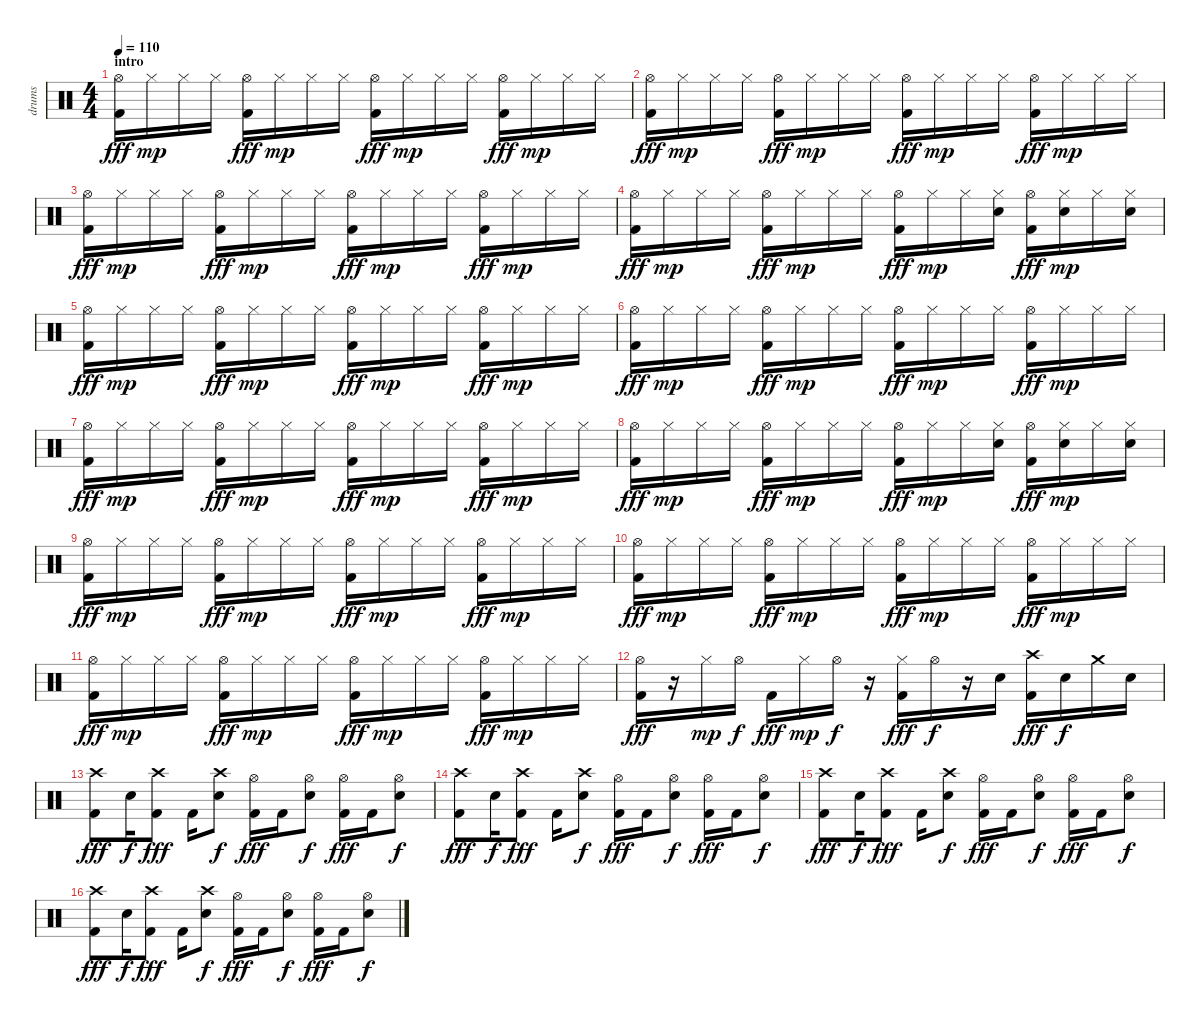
\track ("drums" "drums") {instrument percussion}
\staff {score}
\articulation defaults
\ts (4 4)
\section ("" "intro")
\tempo 110
\clef neutral
\ks c
("Hi-Hat (open)" "Kick (hit) 2").16{dy fff} "Hi-Hat (closed)".16{dy mp} "Hi-Hat (closed)".16 "Hi-Hat (closed)".16 ("Hi-Hat (open)" "Kick (hit) 2").16{dy fff} "Hi-Hat (closed)".16{dy mp} "Hi-Hat (closed)".16 "Hi-Hat (closed)".16 ("Hi-Hat (open)" "Kick (hit) 2").16{dy fff} "Hi-Hat (closed)".16{dy mp} "Hi-Hat (closed)".16 "Hi-Hat (closed)".16 ("Hi-Hat (open)" "Kick (hit) 2").16{dy fff} "Hi-Hat (closed)".16{dy mp} "Hi-Hat (closed)".16 "Hi-Hat (closed)".16 |
("Hi-Hat (open)" "Kick (hit) 2").16{dy fff} "Hi-Hat (closed)".16{dy mp} "Hi-Hat (closed)".16 "Hi-Hat (closed)".16 ("Hi-Hat (open)" "Kick (hit) 2").16{dy fff} "Hi-Hat (closed)".16{dy mp} "Hi-Hat (closed)".16 "Hi-Hat (closed)".16 ("Hi-Hat (open)" "Kick (hit) 2").16{dy fff} "Hi-Hat (closed)".16{dy mp} "Hi-Hat (closed)".16 "Hi-Hat (closed)".16 ("Hi-Hat (open)" "Kick (hit) 2").16{dy fff} "Hi-Hat (closed)".16{dy mp} "Hi-Hat (closed)".16 "Hi-Hat (closed)".16 |
("Hi-Hat (open)" "Kick (hit) 2").16{dy fff} "Hi-Hat (closed)".16{dy mp} "Hi-Hat (closed)".16 "Hi-Hat (closed)".16 ("Hi-Hat (open)" "Kick (hit) 2").16{dy fff} "Hi-Hat (closed)".16{dy mp} "Hi-Hat (closed)".16 "Hi-Hat (closed)".16 ("Hi-Hat (open)" "Kick (hit) 2").16{dy fff} "Hi-Hat (closed)".16{dy mp} "Hi-Hat (closed)".16 "Hi-Hat (closed)".16 ("Hi-Hat (open)" "Kick (hit) 2").16{dy fff} "Hi-Hat (closed)".16{dy mp} "Hi-Hat (closed)".16 "Hi-Hat (closed)".16 |
("Hi-Hat (open)" "Kick (hit) 2").16{dy fff} "Hi-Hat (closed)".16{dy mp} "Hi-Hat (closed)".16 "Hi-Hat (closed)".16 ("Hi-Hat (open)" "Kick (hit) 2").16{dy fff} "Hi-Hat (closed)".16{dy mp} "Hi-Hat (closed)".16 "Hi-Hat (closed)".16 ("Hi-Hat (open)" "Kick (hit) 2").16{dy fff} "Hi-Hat (closed)".16{dy mp} "Hi-Hat (closed)".16 ("Hi-Hat (closed)" "Snare (hit) 2").16 ("Hi-Hat (open)" "Kick (hit) 2").16{dy fff} ("Hi-Hat (closed)" "Snare (hit) 2").16{dy mp} "Hi-Hat (closed)".16 ("Hi-Hat (closed)" "Snare (hit) 2").16 |
("Hi-Hat (open)" "Kick (hit) 2").16{dy fff} "Hi-Hat (closed)".16{dy mp} "Hi-Hat (closed)".16 "Hi-Hat (closed)".16 ("Hi-Hat (open)" "Kick (hit) 2").16{dy fff} "Hi-Hat (closed)".16{dy mp} "Hi-Hat (closed)".16 "Hi-Hat (closed)".16 ("Hi-Hat (open)" "Kick (hit) 2").16{dy fff} "Hi-Hat (closed)".16{dy mp} "Hi-Hat (closed)".16 "Hi-Hat (closed)".16 ("Hi-Hat (open)" "Kick (hit) 2").16{dy fff} "Hi-Hat (closed)".16{dy mp} "Hi-Hat (closed)".16 "Hi-Hat (closed)".16 |
("Hi-Hat (open)" "Kick (hit) 2").16{dy fff} "Hi-Hat (closed)".16{dy mp} "Hi-Hat (closed)".16 "Hi-Hat (closed)".16 ("Hi-Hat (open)" "Kick (hit) 2").16{dy fff} "Hi-Hat (closed)".16{dy mp} "Hi-Hat (closed)".16 "Hi-Hat (closed)".16 ("Hi-Hat (open)" "Kick (hit) 2").16{dy fff} "Hi-Hat (closed)".16{dy mp} "Hi-Hat (closed)".16 "Hi-Hat (closed)".16 ("Hi-Hat (open)" "Kick (hit) 2").16{dy fff} "Hi-Hat (closed)".16{dy mp} "Hi-Hat (closed)".16 "Hi-Hat (closed)".16 |
("Hi-Hat (open)" "Kick (hit) 2").16{dy fff} "Hi-Hat (closed)".16{dy mp} "Hi-Hat (closed)".16 "Hi-Hat (closed)".16 ("Hi-Hat (open)" "Kick (hit) 2").16{dy fff} "Hi-Hat (closed)".16{dy mp} "Hi-Hat (closed)".16 "Hi-Hat (closed)".16 ("Hi-Hat (open)" "Kick (hit) 2").16{dy fff} "Hi-Hat (closed)".16{dy mp} "Hi-Hat (closed)".16 "Hi-Hat (closed)".16 ("Hi-Hat (open)" "Kick (hit) 2").16{dy fff} "Hi-Hat (closed)".16{dy mp} "Hi-Hat (closed)".16 "Hi-Hat (closed)".16 |
("Hi-Hat (open)" "Kick (hit) 2").16{dy fff} "Hi-Hat (closed)".16{dy mp} "Hi-Hat (closed)".16 "Hi-Hat (closed)".16 ("Hi-Hat (open)" "Kick (hit) 2").16{dy fff} "Hi-Hat (closed)".16{dy mp} "Hi-Hat (closed)".16 "Hi-Hat (closed)".16 ("Hi-Hat (open)" "Kick (hit) 2").16{dy fff} "Hi-Hat (closed)".16{dy mp} "Hi-Hat (closed)".16 ("Hi-Hat (closed)" "Snare (hit) 2").16 ("Hi-Hat (open)" "Kick (hit) 2").16{dy fff} ("Hi-Hat (closed)" "Snare (hit) 2").16{dy mp} "Hi-Hat (closed)".16 ("Hi-Hat (closed)" "Snare (hit) 2").16 |
("Hi-Hat (open)" "Kick (hit) 2").16{dy fff} "Hi-Hat (closed)".16{dy mp} "Hi-Hat (closed)".16 "Hi-Hat (closed)".16 ("Hi-Hat (open)" "Kick (hit) 2").16{dy fff} "Hi-Hat (closed)".16{dy mp} "Hi-Hat (closed)".16 "Hi-Hat (closed)".16 ("Hi-Hat (open)" "Kick (hit) 2").16{dy fff} "Hi-Hat (closed)".16{dy mp} "Hi-Hat (closed)".16 "Hi-Hat (closed)".16 ("Hi-Hat (open)" "Kick (hit) 2").16{dy fff} "Hi-Hat (closed)".16{dy mp} "Hi-Hat (closed)".16 "Hi-Hat (closed)".16 |
("Hi-Hat (open)" "Kick (hit) 2").16{dy fff} "Hi-Hat (closed)".16{dy mp} "Hi-Hat (closed)".16 "Hi-Hat (closed)".16 ("Hi-Hat (open)" "Kick (hit) 2").16{dy fff} "Hi-Hat (closed)".16{dy mp} "Hi-Hat (closed)".16 "Hi-Hat (closed)".16 ("Hi-Hat (open)" "Kick (hit) 2").16{dy fff} "Hi-Hat (closed)".16{dy mp} "Hi-Hat (closed)".16 "Hi-Hat (closed)".16 ("Hi-Hat (open)" "Kick (hit) 2").16{dy fff} "Hi-Hat (closed)".16{dy mp} "Hi-Hat (closed)".16 "Hi-Hat (closed)".16 |
("Hi-Hat (open)" "Kick (hit) 2").16{dy fff} "Hi-Hat (closed)".16{dy mp} "Hi-Hat (closed)".16 "Hi-Hat (closed)".16 ("Hi-Hat (open)" "Kick (hit) 2").16{dy fff} "Hi-Hat (closed)".16{dy mp} "Hi-Hat (closed)".16 "Hi-Hat (closed)".16 ("Hi-Hat (open)" "Kick (hit) 2").16{dy fff} "Hi-Hat (closed)".16{dy mp} "Hi-Hat (closed)".16 "Hi-Hat (closed)".16 ("Hi-Hat (open)" "Kick (hit) 2").16{dy fff} "Hi-Hat (closed)".16{dy mp} "Hi-Hat (closed)".16 "Hi-Hat (closed)".16 |
("Hi-Hat (open)" "Kick (hit) 2").16{dy fff} r.16 "Hi-Hat (closed)".16{dy mp} "Hi-Hat (open)".16{dy f} "Kick (hit) 2".16{dy fff} "Hi-Hat (closed)".16{dy mp} "Hi-Hat (open)".16{dy f} r.16 ("Hi-Hat (closed)" "Kick (hit) 2").16{dy fff} "Hi-Hat (open)".16{dy f} r.16 "Snare (hit) 2".16 ("Crash high (hit)" "Kick (hit) 2").16{dy fff} "Snare (hit) 2".16{dy f} "Crash medium (hit)".16 "Snare (hit) 2".16 |
("Crash high (hit)" "Kick (hit) 2").8{dy fff} "Snare (hit) 2".16{dy f} ("Crash high (hit)" "Kick (hit) 2").8{dy fff} "Kick (hit) 2".16 ("Crash high (hit)" "Snare (hit) 2").8{dy f} ("Hi-Hat (open)" "Kick (hit) 2").16{dy fff} "Kick (hit) 2".16 ("Hi-Hat (open)" "Snare (hit) 2").8{dy f} ("Hi-Hat (open)" "Kick (hit) 2").16{dy fff} "Kick (hit) 2".16 ("Hi-Hat (open)" "Snare (hit) 2").8{dy f} |
("Crash high (hit)" "Kick (hit) 2").8{dy fff} "Snare (hit) 2".16{dy f} ("Crash high (hit)" "Kick (hit) 2").8{dy fff} "Kick (hit) 2".16 ("Crash high (hit)" "Snare (hit) 2").8{dy f} ("Hi-Hat (open)" "Kick (hit) 2").16{dy fff} "Kick (hit) 2".16 ("Hi-Hat (open)" "Snare (hit) 2").8{dy f} ("Hi-Hat (open)" "Kick (hit) 2").16{dy fff} "Kick (hit) 2".16 ("Hi-Hat (open)" "Snare (hit) 2").8{dy f} |
("Crash high (hit)" "Kick (hit) 2").8{dy fff} "Snare (hit) 2".16{dy f} ("Crash high (hit)" "Kick (hit) 2").8{dy fff} "Kick (hit) 2".16 ("Crash high (hit)" "Snare (hit) 2").8{dy f} ("Hi-Hat (open)" "Kick (hit) 2").16{dy fff} "Kick (hit) 2".16 ("Hi-Hat (open)" "Snare (hit) 2").8{dy f} ("Hi-Hat (open)" "Kick (hit) 2").16{dy fff} "Kick (hit) 2".16 ("Hi-Hat (open)" "Snare (hit) 2").8{dy f} |
("Crash high (hit)" "Kick (hit) 2").8{dy fff} "Snare (hit) 2".16{dy f} ("Crash high (hit)" "Kick (hit) 2").8{dy fff} "Kick (hit) 2".16 ("Crash high (hit)" "Snare (hit) 2").8{dy f} ("Hi-Hat (open)" "Kick (hit) 2").16{dy fff} "Kick (hit) 2".16 ("Hi-Hat (open)" "Snare (hit) 2").8{dy f} ("Hi-Hat (open)" "Kick (hit) 2").16{dy fff} "Kick (hit) 2".16 ("Hi-Hat (open)" "Snare (hit) 2").8{dy f}
